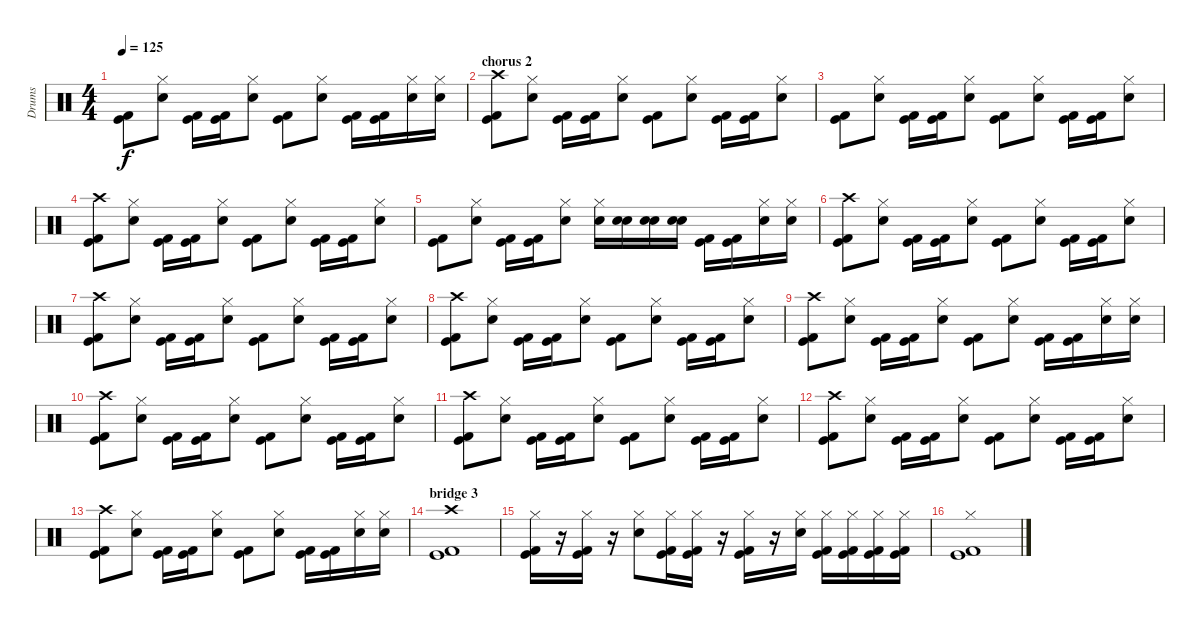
\track ("Drums" "Drums") {instrument percussion}
\staff {score}
\articulation defaults
\ts (4 4)
\tempo 125
\clef neutral
\ks c
("Kick (hit)" "Kick (hit) 2").8{dy f} ("Hi-Hat (closed)" "Electric Snare (hit)").8 ("Kick (hit)" "Kick (hit) 2").16 ("Kick (hit)" "Kick (hit) 2").16 ("Hi-Hat (closed)" "Electric Snare (hit)").8 ("Kick (hit)" "Kick (hit) 2").8 ("Hi-Hat (closed)" "Electric Snare (hit)").8 ("Kick (hit)" "Kick (hit) 2").16 ("Kick (hit)" "Kick (hit) 2").16 ("Hi-Hat (closed)" "Electric Snare (hit)").16 ("Hi-Hat (closed)" "Electric Snare (hit)").16 |
\section ("" "chorus 2")
("Crash high (hit)" "Kick (hit)" "Kick (hit) 2").8 ("Hi-Hat (closed)" "Electric Snare (hit)").8 ("Kick (hit)" "Kick (hit) 2").16 ("Kick (hit)" "Kick (hit) 2").16 ("Hi-Hat (closed)" "Electric Snare (hit)").8 ("Kick (hit)" "Kick (hit) 2").8 ("Hi-Hat (closed)" "Electric Snare (hit)").8 ("Kick (hit)" "Kick (hit) 2").16 ("Kick (hit)" "Kick (hit) 2").16 ("Hi-Hat (closed)" "Electric Snare (hit)").8 |
("Kick (hit)" "Kick (hit) 2").8 ("Hi-Hat (closed)" "Electric Snare (hit)").8 ("Kick (hit)" "Kick (hit) 2").16 ("Kick (hit)" "Kick (hit) 2").16 ("Hi-Hat (closed)" "Electric Snare (hit)").8 ("Kick (hit)" "Kick (hit) 2").8 ("Hi-Hat (closed)" "Electric Snare (hit)").8 ("Kick (hit)" "Kick (hit) 2").16 ("Kick (hit)" "Kick (hit) 2").16 ("Hi-Hat (closed)" "Electric Snare (hit)").8 |
("Crash high (hit)" "Kick (hit)" "Kick (hit) 2").8 ("Hi-Hat (closed)" "Electric Snare (hit)").8 ("Kick (hit)" "Kick (hit) 2").16 ("Kick (hit)" "Kick (hit) 2").16 ("Hi-Hat (closed)" "Electric Snare (hit)").8 ("Kick (hit)" "Kick (hit) 2").8 ("Hi-Hat (closed)" "Electric Snare (hit)").8 ("Kick (hit)" "Kick (hit) 2").16 ("Kick (hit)" "Kick (hit) 2").16 ("Hi-Hat (closed)" "Electric Snare (hit)").8 |
("Kick (hit)" "Kick (hit) 2").8 ("Hi-Hat (closed)" "Electric Snare (hit)").8 ("Kick (hit)" "Kick (hit) 2").16 ("Kick (hit)" "Kick (hit) 2").16 ("Hi-Hat (closed)" "Electric Snare (hit)").8 ("Hi-Hat (closed)" "Electric Snare (hit)").16 ("Electric Snare (hit)" "Snare (hit) 2").16 ("Electric Snare (hit)" "Snare (hit) 2").16 ("Electric Snare (hit)" "Snare (hit) 2").16 ("Kick (hit)" "Kick (hit) 2").16 ("Kick (hit)" "Kick (hit) 2").16 ("Hi-Hat (closed)" "Electric Snare (hit)").16 ("Hi-Hat (closed)" "Electric Snare (hit)").16 |
("Crash high (hit)" "Kick (hit)" "Kick (hit) 2").8 ("Hi-Hat (closed)" "Electric Snare (hit)").8 ("Kick (hit)" "Kick (hit) 2").16 ("Kick (hit)" "Kick (hit) 2").16 ("Hi-Hat (closed)" "Electric Snare (hit)").8 ("Kick (hit)" "Kick (hit) 2").8 ("Hi-Hat (closed)" "Electric Snare (hit)").8 ("Kick (hit)" "Kick (hit) 2").16 ("Kick (hit)" "Kick (hit) 2").16 ("Hi-Hat (closed)" "Electric Snare (hit)").8 |
("Crash high (hit)" "Kick (hit)" "Kick (hit) 2").8 ("Hi-Hat (closed)" "Electric Snare (hit)").8 ("Kick (hit)" "Kick (hit) 2").16 ("Kick (hit)" "Kick (hit) 2").16 ("Hi-Hat (closed)" "Electric Snare (hit)").8 ("Kick (hit)" "Kick (hit) 2").8 ("Hi-Hat (closed)" "Electric Snare (hit)").8 ("Kick (hit)" "Kick (hit) 2").16 ("Kick (hit)" "Kick (hit) 2").16 ("Hi-Hat (closed)" "Electric Snare (hit)").8 |
("Crash high (hit)" "Kick (hit)" "Kick (hit) 2").8 ("Hi-Hat (closed)" "Electric Snare (hit)").8 ("Kick (hit)" "Kick (hit) 2").16 ("Kick (hit)" "Kick (hit) 2").16 ("Hi-Hat (closed)" "Electric Snare (hit)").8 ("Kick (hit)" "Kick (hit) 2").8 ("Hi-Hat (closed)" "Electric Snare (hit)").8 ("Kick (hit)" "Kick (hit) 2").16 ("Kick (hit)" "Kick (hit) 2").16 ("Hi-Hat (closed)" "Electric Snare (hit)").8 |
("Crash high (hit)" "Kick (hit)" "Kick (hit) 2").8 ("Hi-Hat (closed)" "Electric Snare (hit)").8 ("Kick (hit)" "Kick (hit) 2").16 ("Kick (hit)" "Kick (hit) 2").16 ("Hi-Hat (closed)" "Electric Snare (hit)").8 ("Kick (hit)" "Kick (hit) 2").8 ("Hi-Hat (closed)" "Electric Snare (hit)").8 ("Kick (hit)" "Kick (hit) 2").16 ("Kick (hit)" "Kick (hit) 2").16 ("Hi-Hat (closed)" "Electric Snare (hit)").16 ("Hi-Hat (closed)" "Electric Snare (hit)").16 |
("Crash high (hit)" "Kick (hit)" "Kick (hit) 2").8 ("Hi-Hat (closed)" "Electric Snare (hit)").8 ("Kick (hit)" "Kick (hit) 2").16 ("Kick (hit)" "Kick (hit) 2").16 ("Hi-Hat (closed)" "Electric Snare (hit)").8 ("Kick (hit)" "Kick (hit) 2").8 ("Hi-Hat (closed)" "Electric Snare (hit)").8 ("Kick (hit)" "Kick (hit) 2").16 ("Kick (hit)" "Kick (hit) 2").16 ("Hi-Hat (closed)" "Electric Snare (hit)").8 |
("Crash high (hit)" "Kick (hit)" "Kick (hit) 2").8 ("Hi-Hat (closed)" "Electric Snare (hit)").8 ("Kick (hit)" "Kick (hit) 2").16 ("Kick (hit)" "Kick (hit) 2").16 ("Hi-Hat (closed)" "Electric Snare (hit)").8 ("Kick (hit)" "Kick (hit) 2").8 ("Hi-Hat (closed)" "Electric Snare (hit)").8 ("Kick (hit)" "Kick (hit) 2").16 ("Kick (hit)" "Kick (hit) 2").16 ("Hi-Hat (closed)" "Electric Snare (hit)").8 |
("Crash high (hit)" "Kick (hit)" "Kick (hit) 2").8 ("Hi-Hat (closed)" "Electric Snare (hit)").8 ("Kick (hit)" "Kick (hit) 2").16 ("Kick (hit)" "Kick (hit) 2").16 ("Hi-Hat (closed)" "Electric Snare (hit)").8 ("Kick (hit)" "Kick (hit) 2").8 ("Hi-Hat (closed)" "Electric Snare (hit)").8 ("Kick (hit)" "Kick (hit) 2").16 ("Kick (hit)" "Kick (hit) 2").16 ("Hi-Hat (closed)" "Electric Snare (hit)").8 |
("Crash high (hit)" "Kick (hit)" "Kick (hit) 2").8 ("Hi-Hat (closed)" "Electric Snare (hit)").8 ("Kick (hit)" "Kick (hit) 2").16 ("Kick (hit)" "Kick (hit) 2").16 ("Hi-Hat (closed)" "Electric Snare (hit)").8 ("Kick (hit)" "Kick (hit) 2").8 ("Hi-Hat (closed)" "Electric Snare (hit)").8 ("Kick (hit)" "Kick (hit) 2").16 ("Kick (hit)" "Kick (hit) 2").16 ("Hi-Hat (closed)" "Electric Snare (hit)").16 ("Hi-Hat (closed)" "Electric Snare (hit)").16 |
\section ("" "bridge 3")
("Crash high (hit)" "Kick (hit)" "Kick (hit) 2").1 |
("Hi-Hat (closed)" "Kick (hit)" "Kick (hit) 2").16 r.16 ("Hi-Hat (closed)" "Kick (hit)" "Kick (hit) 2").16 r.16 ("Hi-Hat (closed)" "Electric Snare (hit)").8 ("Hi-Hat (closed)" "Kick (hit)" "Kick (hit) 2").16 ("Hi-Hat (closed)" "Kick (hit)" "Kick (hit) 2").16 r.16 ("Hi-Hat (closed)" "Kick (hit)" "Kick (hit) 2").16 r.16 ("Hi-Hat (closed)" "Electric Snare (hit)").16 ("Hi-Hat (closed)" "Kick (hit)" "Kick (hit) 2").16 ("Hi-Hat (closed)" "Kick (hit)" "Kick (hit) 2").16 ("Hi-Hat (closed)" "Kick (hit)" "Kick (hit) 2").16 ("Hi-Hat (closed)" "Kick (hit)" "Kick (hit) 2").16 |
("Hi-Hat (closed)" "Kick (hit)" "Kick (hit) 2").1
